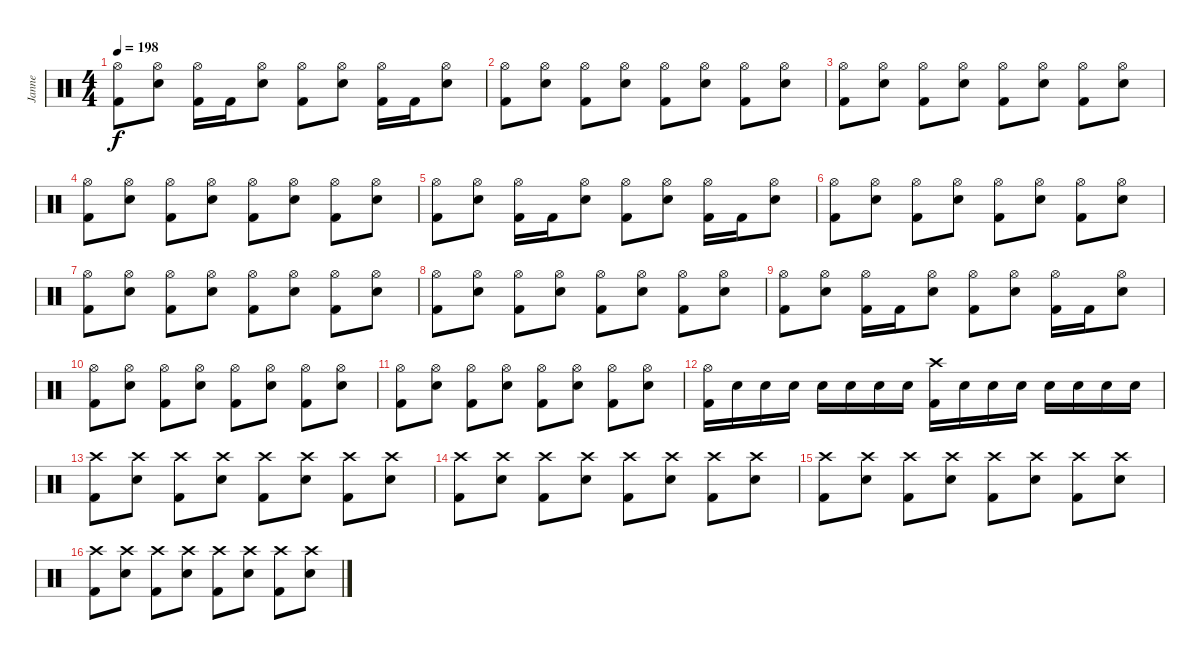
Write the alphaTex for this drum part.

\track ("Janne" "Janne") {instrument percussion}
\staff {score}
\articulation defaults
\ts (4 4)
\tempo 198
\clef neutral
\ks c
("Hi-Hat (open)" "Kick (hit) 2").8{dy f} ("Hi-Hat (open)" "Electric Snare (hit)").8 ("Hi-Hat (open)" "Kick (hit) 2").16 "Kick (hit) 2".16 ("Hi-Hat (open)" "Electric Snare (hit)").8 ("Hi-Hat (open)" "Kick (hit) 2").8 ("Hi-Hat (open)" "Electric Snare (hit)").8 ("Hi-Hat (open)" "Kick (hit) 2").16 "Kick (hit) 2".16 ("Hi-Hat (open)" "Electric Snare (hit)").8 |
("Hi-Hat (open)" "Kick (hit) 2").8 ("Hi-Hat (open)" "Electric Snare (hit)").8 ("Hi-Hat (open)" "Kick (hit) 2").8 ("Hi-Hat (open)" "Electric Snare (hit)").8 ("Hi-Hat (open)" "Kick (hit) 2").8 ("Hi-Hat (open)" "Electric Snare (hit)").8 ("Hi-Hat (open)" "Kick (hit) 2").8 ("Hi-Hat (open)" "Electric Snare (hit)").8 |
("Hi-Hat (open)" "Kick (hit) 2").8 ("Hi-Hat (open)" "Electric Snare (hit)").8 ("Hi-Hat (open)" "Kick (hit) 2").8 ("Hi-Hat (open)" "Electric Snare (hit)").8 ("Hi-Hat (open)" "Kick (hit) 2").8 ("Hi-Hat (open)" "Electric Snare (hit)").8 ("Hi-Hat (open)" "Kick (hit) 2").8 ("Hi-Hat (open)" "Electric Snare (hit)").8 |
("Hi-Hat (open)" "Kick (hit) 2").8 ("Hi-Hat (open)" "Electric Snare (hit)").8 ("Hi-Hat (open)" "Kick (hit) 2").8 ("Hi-Hat (open)" "Electric Snare (hit)").8 ("Hi-Hat (open)" "Kick (hit) 2").8 ("Hi-Hat (open)" "Electric Snare (hit)").8 ("Hi-Hat (open)" "Kick (hit) 2").8 ("Hi-Hat (open)" "Electric Snare (hit)").8 |
("Hi-Hat (open)" "Kick (hit) 2").8 ("Hi-Hat (open)" "Electric Snare (hit)").8 ("Hi-Hat (open)" "Kick (hit) 2").16 "Kick (hit) 2".16 ("Hi-Hat (open)" "Electric Snare (hit)").8 ("Hi-Hat (open)" "Kick (hit) 2").8 ("Hi-Hat (open)" "Electric Snare (hit)").8 ("Hi-Hat (open)" "Kick (hit) 2").16 "Kick (hit) 2".16 ("Hi-Hat (open)" "Electric Snare (hit)").8 |
("Hi-Hat (open)" "Kick (hit) 2").8 ("Hi-Hat (open)" "Electric Snare (hit)").8 ("Hi-Hat (open)" "Kick (hit) 2").8 ("Hi-Hat (open)" "Electric Snare (hit)").8 ("Hi-Hat (open)" "Kick (hit) 2").8 ("Hi-Hat (open)" "Electric Snare (hit)").8 ("Hi-Hat (open)" "Kick (hit) 2").8 ("Hi-Hat (open)" "Electric Snare (hit)").8 |
("Hi-Hat (open)" "Kick (hit) 2").8 ("Hi-Hat (open)" "Electric Snare (hit)").8 ("Hi-Hat (open)" "Kick (hit) 2").8 ("Hi-Hat (open)" "Electric Snare (hit)").8 ("Hi-Hat (open)" "Kick (hit) 2").8 ("Hi-Hat (open)" "Electric Snare (hit)").8 ("Hi-Hat (open)" "Kick (hit) 2").8 ("Hi-Hat (open)" "Electric Snare (hit)").8 |
("Hi-Hat (open)" "Kick (hit) 2").8 ("Hi-Hat (open)" "Electric Snare (hit)").8 ("Hi-Hat (open)" "Kick (hit) 2").8 ("Hi-Hat (open)" "Electric Snare (hit)").8 ("Hi-Hat (open)" "Kick (hit) 2").8 ("Hi-Hat (open)" "Electric Snare (hit)").8 ("Hi-Hat (open)" "Kick (hit) 2").8 ("Hi-Hat (open)" "Electric Snare (hit)").8 |
("Hi-Hat (open)" "Kick (hit) 2").8 ("Hi-Hat (open)" "Electric Snare (hit)").8 ("Hi-Hat (open)" "Kick (hit) 2").16 "Kick (hit) 2".16 ("Hi-Hat (open)" "Electric Snare (hit)").8 ("Hi-Hat (open)" "Kick (hit) 2").8 ("Hi-Hat (open)" "Electric Snare (hit)").8 ("Hi-Hat (open)" "Kick (hit) 2").16 "Kick (hit) 2".16 ("Hi-Hat (open)" "Electric Snare (hit)").8 |
("Hi-Hat (open)" "Kick (hit) 2").8 ("Hi-Hat (open)" "Electric Snare (hit)").8 ("Hi-Hat (open)" "Kick (hit) 2").8 ("Hi-Hat (open)" "Electric Snare (hit)").8 ("Hi-Hat (open)" "Kick (hit) 2").8 ("Hi-Hat (open)" "Electric Snare (hit)").8 ("Hi-Hat (open)" "Kick (hit) 2").8 ("Hi-Hat (open)" "Electric Snare (hit)").8 |
("Hi-Hat (open)" "Kick (hit) 2").8 ("Hi-Hat (open)" "Electric Snare (hit)").8 ("Hi-Hat (open)" "Kick (hit) 2").8 ("Hi-Hat (open)" "Electric Snare (hit)").8 ("Hi-Hat (open)" "Kick (hit) 2").8 ("Hi-Hat (open)" "Electric Snare (hit)").8 ("Hi-Hat (open)" "Kick (hit) 2").8 ("Hi-Hat (open)" "Electric Snare (hit)").8 |
("Hi-Hat (open)" "Kick (hit) 2").16 "Electric Snare (hit)".16 "Electric Snare (hit)".16 "Electric Snare (hit)".16 "Electric Snare (hit)".16 "Electric Snare (hit)".16 "Electric Snare (hit)".16 "Electric Snare (hit)".16 ("Crash high (hit)" "Kick (hit) 2").16 "Electric Snare (hit)".16 "Electric Snare (hit)".16 "Electric Snare (hit)".16 "Electric Snare (hit)".16 "Electric Snare (hit)".16 "Electric Snare (hit)".16 "Electric Snare (hit)".16 |
("Crash high (hit)" "Kick (hit) 2").8 ("Crash high (hit)" "Electric Snare (hit)").8 ("Crash high (hit)" "Kick (hit) 2").8 ("Crash high (hit)" "Electric Snare (hit)").8 ("Crash high (hit)" "Kick (hit) 2").8 ("Crash high (hit)" "Electric Snare (hit)").8 ("Crash high (hit)" "Kick (hit) 2").8 ("Crash high (hit)" "Electric Snare (hit)").8 |
("Crash high (hit)" "Kick (hit) 2").8 ("Crash high (hit)" "Electric Snare (hit)").8 ("Crash high (hit)" "Kick (hit) 2").8 ("Crash high (hit)" "Electric Snare (hit)").8 ("Crash high (hit)" "Kick (hit) 2").8 ("Crash high (hit)" "Electric Snare (hit)").8 ("Crash high (hit)" "Kick (hit) 2").8 ("Crash high (hit)" "Electric Snare (hit)").8 |
("Crash high (hit)" "Kick (hit) 2").8 ("Crash high (hit)" "Electric Snare (hit)").8 ("Crash high (hit)" "Kick (hit) 2").8 ("Crash high (hit)" "Electric Snare (hit)").8 ("Crash high (hit)" "Kick (hit) 2").8 ("Crash high (hit)" "Electric Snare (hit)").8 ("Crash high (hit)" "Kick (hit) 2").8 ("Crash high (hit)" "Electric Snare (hit)").8 |
("Crash high (hit)" "Kick (hit) 2").8 ("Crash high (hit)" "Electric Snare (hit)").8 ("Crash high (hit)" "Kick (hit) 2").8 ("Crash high (hit)" "Electric Snare (hit)").8 ("Crash high (hit)" "Kick (hit) 2").8 ("Crash high (hit)" "Electric Snare (hit)").8 ("Crash high (hit)" "Kick (hit) 2").8 ("Crash high (hit)" "Electric Snare (hit)").8
